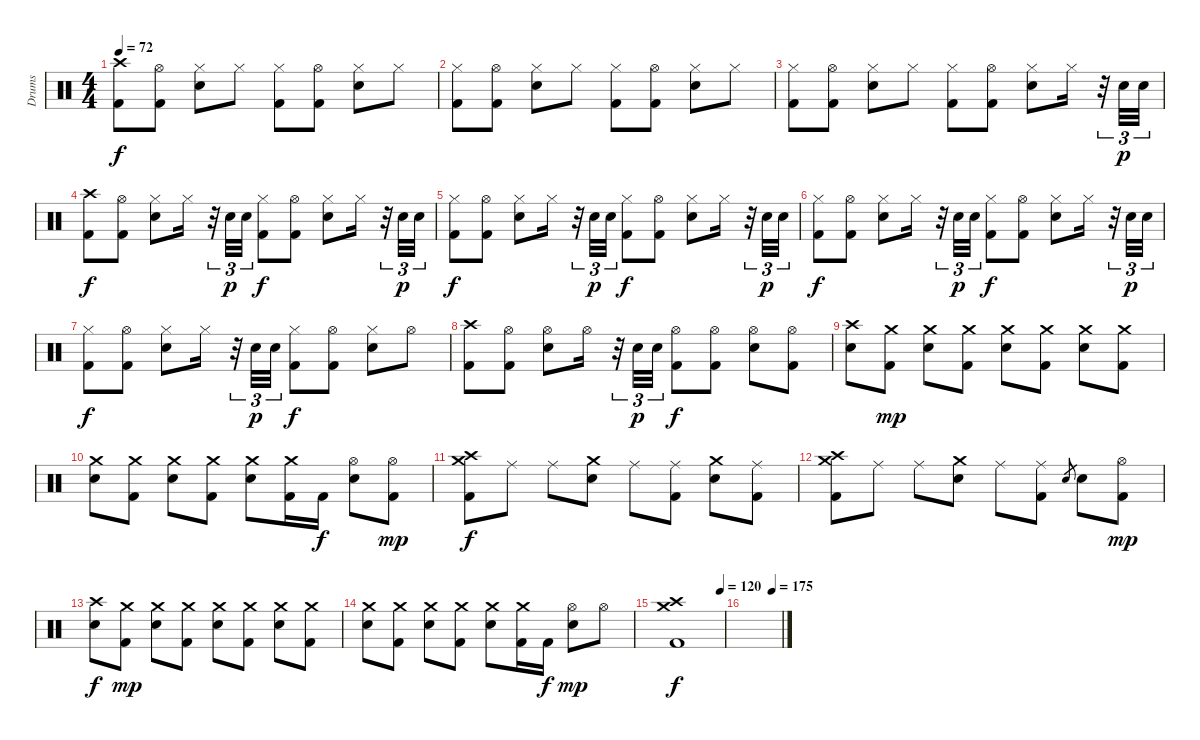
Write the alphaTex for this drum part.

\track ("Drums" "Drums") {instrument percussion}
\staff {score}
\articulation defaults
\ts (4 4)
\tempo 72
\clef neutral
\ks c
("Crash high (hit)" "Kick (hit) 2").8{dy f} ("Hi-Hat (open)" "Kick (hit) 2").8 ("Hi-Hat (closed)" "Electric Snare (hit)").8 "Hi-Hat (closed)".8 ("Hi-Hat (closed)" "Kick (hit) 2").8 ("Hi-Hat (open)" "Kick (hit) 2").8 ("Hi-Hat (closed)" "Electric Snare (hit)").8 "Hi-Hat (closed)".8 |
("Hi-Hat (closed)" "Kick (hit) 2").8 ("Hi-Hat (open)" "Kick (hit) 2").8 ("Hi-Hat (closed)" "Electric Snare (hit)").8 "Hi-Hat (closed)".8 ("Hi-Hat (closed)" "Kick (hit) 2").8 ("Hi-Hat (open)" "Kick (hit) 2").8 ("Hi-Hat (closed)" "Electric Snare (hit)").8 "Hi-Hat (closed)".8 |
("Hi-Hat (closed)" "Kick (hit) 2").8 ("Hi-Hat (open)" "Kick (hit) 2").8 ("Hi-Hat (closed)" "Electric Snare (hit)").8 "Hi-Hat (closed)".8 ("Hi-Hat (closed)" "Kick (hit) 2").8 ("Hi-Hat (open)" "Kick (hit) 2").8 ("Hi-Hat (closed)" "Electric Snare (hit)").8 "Hi-Hat (closed)".16 r.32{tu (3 2)} "Electric Snare (hit)".32{tu (3 2) dy p} "Electric Snare (hit)".32{tu (3 2)} |
("Crash high (hit)" "Kick (hit) 2").8{dy f} ("Hi-Hat (open)" "Kick (hit) 2").8 ("Hi-Hat (closed)" "Electric Snare (hit)").8 "Hi-Hat (closed)".16 r.32{tu (3 2)} "Electric Snare (hit)".32{tu (3 2) dy p} "Electric Snare (hit)".32{tu (3 2)} ("Hi-Hat (closed)" "Kick (hit) 2").8{dy f} ("Hi-Hat (open)" "Kick (hit) 2").8 ("Hi-Hat (closed)" "Electric Snare (hit)").8 "Hi-Hat (closed)".16 r.32{tu (3 2)} "Electric Snare (hit)".32{tu (3 2) dy p} "Electric Snare (hit)".32{tu (3 2)} |
("Hi-Hat (closed)" "Kick (hit) 2").8{dy f} ("Hi-Hat (open)" "Kick (hit) 2").8 ("Hi-Hat (closed)" "Electric Snare (hit)").8 "Hi-Hat (closed)".16 r.32{tu (3 2)} "Electric Snare (hit)".32{tu (3 2) dy p} "Electric Snare (hit)".32{tu (3 2)} ("Hi-Hat (closed)" "Kick (hit) 2").8{dy f} ("Hi-Hat (open)" "Kick (hit) 2").8 ("Hi-Hat (closed)" "Electric Snare (hit)").8 "Hi-Hat (closed)".16 r.32{tu (3 2)} "Electric Snare (hit)".32{tu (3 2) dy p} "Electric Snare (hit)".32{tu (3 2)} |
("Hi-Hat (closed)" "Kick (hit) 2").8{dy f} ("Hi-Hat (open)" "Kick (hit) 2").8 ("Hi-Hat (closed)" "Electric Snare (hit)").8 "Hi-Hat (closed)".16 r.32{tu (3 2)} "Electric Snare (hit)".32{tu (3 2) dy p} "Electric Snare (hit)".32{tu (3 2)} ("Hi-Hat (closed)" "Kick (hit) 2").8{dy f} ("Hi-Hat (open)" "Kick (hit) 2").8 ("Hi-Hat (closed)" "Electric Snare (hit)").8 "Hi-Hat (closed)".16 r.32{tu (3 2)} "Electric Snare (hit)".32{tu (3 2) dy p} "Electric Snare (hit)".32{tu (3 2)} |
("Hi-Hat (closed)" "Kick (hit) 2").8{dy f} ("Hi-Hat (open)" "Kick (hit) 2").8 ("Hi-Hat (closed)" "Electric Snare (hit)").8 "Hi-Hat (closed)".16 r.32{tu (3 2)} "Electric Snare (hit)".32{tu (3 2) dy p} "Electric Snare (hit)".32{tu (3 2)} ("Hi-Hat (closed)" "Kick (hit) 2").8{dy f} ("Hi-Hat (open)" "Kick (hit) 2").8 ("Hi-Hat (closed)" "Electric Snare (hit)").8 "Hi-Hat (open)".8 |
("Crash high (hit)" "Kick (hit) 2").8 ("Hi-Hat (open)" "Kick (hit) 2").8 ("Hi-Hat (open)" "Electric Snare (hit)").8 "Hi-Hat (open)".16 r.32{tu (3 2)} "Electric Snare (hit)".32{tu (3 2) dy p} "Electric Snare (hit)".32{tu (3 2)} ("Hi-Hat (open)" "Kick (hit) 2").8{dy f} ("Hi-Hat (open)" "Kick (hit) 2").8 ("Hi-Hat (open)" "Electric Snare (hit)").8 ("Hi-Hat (open)" "Kick (hit) 2").8 |
("Crash high (hit)" "Electric Snare (hit)").8 ("Crash medium (hit)" "Kick (hit) 2").8{dy mp} ("Crash medium (hit)" "Electric Snare (hit)").8 ("Crash medium (hit)" "Kick (hit) 2").8 ("Crash medium (hit)" "Electric Snare (hit)").8 ("Crash medium (hit)" "Kick (hit) 2").8 ("Crash medium (hit)" "Electric Snare (hit)").8 ("Crash medium (hit)" "Kick (hit) 2").8 |
("Crash medium (hit)" "Electric Snare (hit)").8 ("Crash medium (hit)" "Kick (hit) 2").8 ("Crash medium (hit)" "Electric Snare (hit)").8 ("Crash medium (hit)" "Kick (hit) 2").8 ("Crash medium (hit)" "Electric Snare (hit)").8 ("Crash medium (hit)" "Kick (hit) 2").16 "Kick (hit) 2".16{dy f} ("Hi-Hat (open)" "Electric Snare (hit)").8 ("Hi-Hat (open)" "Kick (hit) 2").8{dy mp} |
("Crash high (hit)" "Crash medium (hit)" "Kick (hit) 2").8{dy f} "Ride (middle)".8 "Ride (middle)".8 ("Crash medium (hit)" "Electric Snare (hit)").8 "Ride (middle)".8 ("Ride (middle)" "Kick (hit) 2").8 ("Crash medium (hit)" "Electric Snare (hit)").8 ("Ride (middle)" "Kick (hit) 2").8 |
("Crash high (hit)" "Crash medium (hit)" "Kick (hit) 2").8 "Ride (middle)".8 "Ride (middle)".8 ("Crash medium (hit)" "Electric Snare (hit)").8 "Ride (middle)".8 ("Ride (middle)" "Kick (hit) 2").8 "Electric Snare (hit)".8{gr} "Electric Snare (hit)".8 ("Hi-Hat (open)" "Kick (hit) 2").8{dy mp} |
("Crash high (hit)" "Electric Snare (hit)").8{dy f} ("Crash medium (hit)" "Kick (hit) 2").8{dy mp} ("Crash medium (hit)" "Electric Snare (hit)").8 ("Crash medium (hit)" "Kick (hit) 2").8 ("Crash medium (hit)" "Electric Snare (hit)").8 ("Crash medium (hit)" "Kick (hit) 2").8 ("Crash medium (hit)" "Electric Snare (hit)").8 ("Crash medium (hit)" "Kick (hit) 2").8 |
("Crash medium (hit)" "Electric Snare (hit)").8 ("Crash medium (hit)" "Kick (hit) 2").8 ("Crash medium (hit)" "Electric Snare (hit)").8 ("Crash medium (hit)" "Kick (hit) 2").8 ("Crash medium (hit)" "Electric Snare (hit)").8 ("Crash medium (hit)" "Kick (hit) 2").16 "Kick (hit) 2".16{dy f} ("Hi-Hat (open)" "Electric Snare (hit)").8{dy mp} "Hi-Hat (open)".8 |
\tempo (120 0.9375)
("Crash high (hit)" "Crash medium (hit)" "Kick (hit) 2").1{dy f} |
\tempo (175 0.75)
